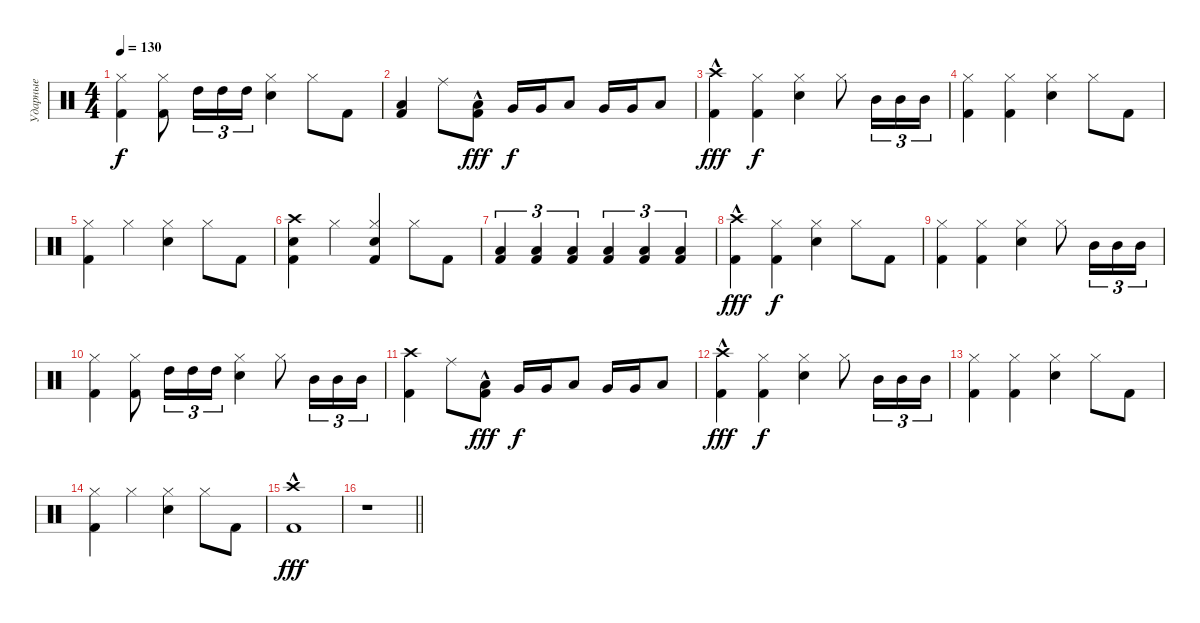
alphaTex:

\track ("Ударные" "Ударные") {instrument percussion}
\staff {score}
\articulation defaults
\ts (4 4)
\tempo 130
\clef neutral
\ks c
("Kick (hit) 2" "Hi-Hat (closed)").4{dy f} ("Kick (hit) 2" "Hi-Hat (closed)").8 "High Tom (hit)".16{tu (3 2)} "High Tom (hit)".16{tu (3 2)} "High Tom (hit)".16{tu (3 2)} ("Snare (hit) 2" "Hi-Hat (closed)").4 "Hi-Hat (closed)".8 "Kick (hit) 2".8 |
("Kick (hit) 2" "Low Tom (hit)").4 "Ride (middle)".8 ("Kick (hit) 2"{hac} "Low Tom (hit)").8{dy fff} "Very Low Tom (hit)".16{dy f} "Very Low Tom (hit)".16 "Low Floor Tom (hit)".8 "Very Low Tom (hit)".16 "Very Low Tom (hit)".16 "Low Floor Tom (hit)".8 |
("Kick (hit) 2" "Crash high (hit)"{hac}).4{dy fff} ("Kick (hit) 2" "Hi-Hat (closed)").4{dy f} ("Snare (hit) 2" "Hi-Hat (closed)").4 "Hi-Hat (closed)".8 "Mid Tom (hit)".16{tu (3 2)} "Mid Tom (hit)".16{tu (3 2)} "Mid Tom (hit)".16{tu (3 2)} |
("Kick (hit) 2" "Hi-Hat (closed)").4 ("Kick (hit) 2" "Hi-Hat (closed)").4 ("Snare (hit) 2" "Hi-Hat (closed)").4 "Hi-Hat (closed)".8 "Kick (hit) 2".8 |
("Kick (hit) 2" "Hi-Hat (closed)").4 "Hi-Hat (closed)".4 ("Snare (hit) 2" "Hi-Hat (closed)").4 "Hi-Hat (closed)".8 "Kick (hit) 2".8 |
("Kick (hit) 2" "Snare (hit) 2" "Crash high (hit)").4 "Hi-Hat (closed)".4 ("Kick (hit) 2" "Snare (hit) 2" "Hi-Hat (closed)").4 "Hi-Hat (closed)".8 "Kick (hit) 2".8 |
("Kick (hit) 2" "Low Floor Tom (hit)").4{tu (3 2)} ("Kick (hit) 2" "Low Floor Tom (hit)").4{tu (3 2)} ("Kick (hit) 2" "Low Floor Tom (hit)").4{tu (3 2)} ("Kick (hit) 2" "Low Floor Tom (hit)").4{tu (3 2)} ("Kick (hit) 2" "Low Floor Tom (hit)").4{tu (3 2)} ("Kick (hit) 2" "Low Floor Tom (hit)").4{tu (3 2)} |
("Kick (hit) 2" "Crash high (hit)"{hac}).4{dy fff} ("Kick (hit) 2" "Hi-Hat (closed)").4{dy f} ("Snare (hit) 2" "Hi-Hat (closed)").4 "Hi-Hat (closed)".8 "Kick (hit) 2".8 |
("Kick (hit) 2" "Hi-Hat (closed)").4 ("Kick (hit) 2" "Hi-Hat (closed)").4 ("Snare (hit) 2" "Hi-Hat (closed)").4 "Hi-Hat (closed)".8 "Mid Tom (hit)".16{tu (3 2)} "Mid Tom (hit)".16{tu (3 2)} "Mid Tom (hit)".16{tu (3 2)} |
("Kick (hit) 2" "Hi-Hat (closed)").4 ("Kick (hit) 2" "Hi-Hat (closed)").8 "High Tom (hit)".16{tu (3 2)} "High Tom (hit)".16{tu (3 2)} "High Tom (hit)".16{tu (3 2)} ("Snare (hit) 2" "Hi-Hat (closed)").4 "Hi-Hat (closed)".8 "Mid Tom (hit)".16{tu (3 2)} "Mid Tom (hit)".16{tu (3 2)} "Mid Tom (hit)".16{tu (3 2)} |
("Kick (hit) 2" "Crash high (hit)").4 "Ride (middle)".8 ("Kick (hit) 2"{hac} "Low Tom (hit)").8{dy fff} "Very Low Tom (hit)".16{dy f} "Very Low Tom (hit)".16 "Low Floor Tom (hit)".8 "Very Low Tom (hit)".16 "Very Low Tom (hit)".16 "Low Floor Tom (hit)".8 |
("Kick (hit) 2" "Crash high (hit)"{hac}).4{dy fff} ("Kick (hit) 2" "Hi-Hat (closed)").4{dy f} ("Snare (hit) 2" "Hi-Hat (closed)").4 "Hi-Hat (closed)".8 "Mid Tom (hit)".16{tu (3 2)} "Mid Tom (hit)".16{tu (3 2)} "Mid Tom (hit)".16{tu (3 2)} |
("Kick (hit) 2" "Hi-Hat (closed)").4 ("Kick (hit) 2" "Hi-Hat (closed)").4 ("Snare (hit) 2" "Hi-Hat (closed)").4 "Hi-Hat (closed)".8 "Kick (hit) 2".8 |
("Kick (hit) 2" "Hi-Hat (closed)").4 "Hi-Hat (closed)".4 ("Snare (hit) 2" "Hi-Hat (closed)").4 "Hi-Hat (closed)".8 "Kick (hit) 2".8 |
("Kick (hit) 2" "Crash high (hit)"{hac}).1{dy fff} |
\barLineRight lightlight
r.1
